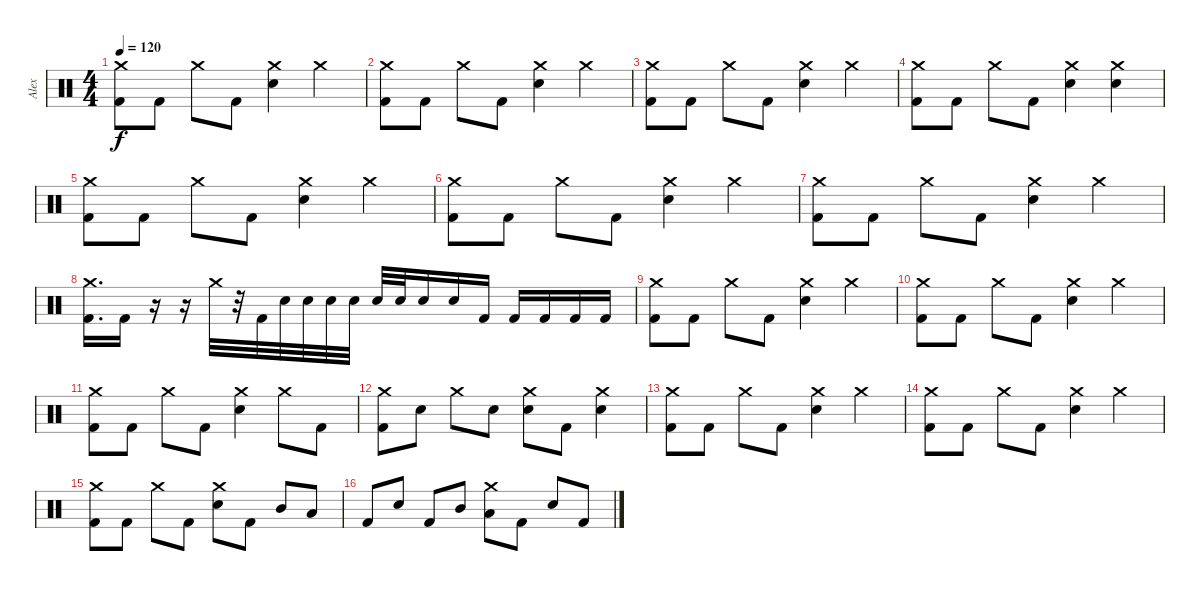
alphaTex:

\track ("Alex" "Alex") {instrument percussion}
\staff {score}
\articulation defaults
\ts (4 4)
\tempo 120
\clef neutral
\ks c
("Crash medium (hit)" "Kick (hit) 2").8{dy f} "Kick (hit) 2".8 "Crash medium (hit)".8 "Kick (hit) 2".8 ("Crash medium (hit)" "Snare (hit) 2").4 "Crash medium (hit)".4 |
("Crash medium (hit)" "Kick (hit) 2").8 "Kick (hit) 2".8 "Crash medium (hit)".8 "Kick (hit) 2".8 ("Crash medium (hit)" "Snare (hit) 2").4 "Crash medium (hit)".4 |
("Crash medium (hit)" "Kick (hit) 2").8 "Kick (hit) 2".8 "Crash medium (hit)".8 "Kick (hit) 2".8 ("Crash medium (hit)" "Snare (hit) 2").4 "Crash medium (hit)".4 |
("Crash medium (hit)" "Kick (hit) 2").8 "Kick (hit) 2".8 "Crash medium (hit)".8 "Kick (hit) 2".8 ("Crash medium (hit)" "Snare (hit) 2").4 ("Crash medium (hit)" "Snare (hit) 2").4 |
("Crash medium (hit)" "Kick (hit) 2").8 "Kick (hit) 2".8 "Crash medium (hit)".8 "Kick (hit) 2".8 ("Crash medium (hit)" "Snare (hit) 2").4 "Crash medium (hit)".4 |
("Crash medium (hit)" "Kick (hit) 2").8 "Kick (hit) 2".8 "Crash medium (hit)".8 "Kick (hit) 2".8 ("Crash medium (hit)" "Snare (hit) 2").4 "Crash medium (hit)".4 |
("Crash medium (hit)" "Kick (hit) 2").8 "Kick (hit) 2".8 "Crash medium (hit)".8 "Kick (hit) 2".8 ("Crash medium (hit)" "Snare (hit) 2").4 "Crash medium (hit)".4 |
("Crash medium (hit)" "Kick (hit) 2").16{d} "Kick (hit) 2".16 r.16 r.16 "Crash medium (hit)".32 r.32 "Kick (hit) 2".32 "Snare (hit) 2".32 "Snare (hit) 2".32 "Snare (hit) 2".32 "Snare (hit) 2".32 "Snare (hit) 2".32 "Snare (hit) 2".32 "Snare (hit) 2".16 "Snare (hit) 2".16 "Kick (hit) 2".16 "Kick (hit) 2".16 "Kick (hit) 2".16 "Kick (hit) 2".16 "Kick (hit) 2".16 |
("Crash medium (hit)" "Kick (hit) 2").8 "Kick (hit) 2".8 "Crash medium (hit)".8 "Kick (hit) 2".8 ("Crash medium (hit)" "Snare (hit) 2").4 "Crash medium (hit)".4 |
("Crash medium (hit)" "Kick (hit) 2").8 "Kick (hit) 2".8 "Crash medium (hit)".8 "Kick (hit) 2".8 ("Crash medium (hit)" "Snare (hit) 2").4 "Crash medium (hit)".4 |
("Crash medium (hit)" "Kick (hit) 2").8 "Kick (hit) 2".8 "Crash medium (hit)".8 "Kick (hit) 2".8 ("Crash medium (hit)" "Snare (hit) 2").4 "Crash medium (hit)".8 "Kick (hit) 2".8 |
("Crash medium (hit)" "Kick (hit) 2").8 "Snare (hit) 2".8 "Crash medium (hit)".8 "Snare (hit) 2".8 ("Crash medium (hit)" "Snare (hit) 2").8 "Kick (hit) 2".8 ("Crash medium (hit)" "Snare (hit) 2").4 |
("Crash medium (hit)" "Kick (hit) 2").8 "Kick (hit) 2".8 "Crash medium (hit)".8 "Kick (hit) 2".8 ("Crash medium (hit)" "Snare (hit) 2").4 "Crash medium (hit)".4 |
("Crash medium (hit)" "Kick (hit) 2").8 "Kick (hit) 2".8 "Crash medium (hit)".8 "Kick (hit) 2".8 ("Crash medium (hit)" "Snare (hit) 2").4 "Crash medium (hit)".4 |
("Crash medium (hit)" "Kick (hit) 2").8 "Kick (hit) 2".8 "Crash medium (hit)".8 "Kick (hit) 2".8 ("Crash medium (hit)" "Snare (hit) 2").8 "Kick (hit) 2".8 "Mid Tom (hit)".8 "Low Tom (hit)".8 |
"Kick (hit) 2".8 "Snare (hit) 2".8 "Kick (hit) 2".8 "Mid Tom (hit)".8 ("Crash medium (hit)" "Low Tom (hit)").8 "Kick (hit) 2".8 "Snare (hit) 2".8 "Kick (hit) 2".8
